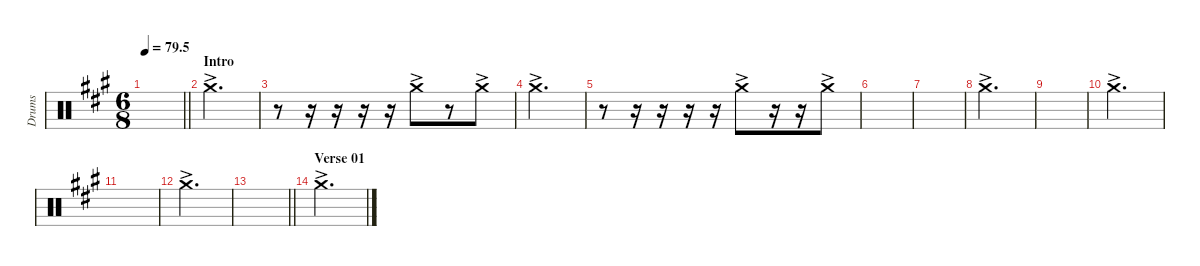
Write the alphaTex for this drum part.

\defaultSystemsLayout 4
\hideDynamics
\bracketExtendMode nobrackets
\otherSystemsTrackNameOrientation horizontal
\track ("Right crash" "Drums") {instrument percussion}
\staff {score}
\articulation defaults
\ts (6 8)
\tempo
79.5
\accidentals auto
\clef neutral
\ottava regular
\simile none
\scale
0.474178
\barLineRight lightlight
\ks a
|
\section ("" "Intro")
\scale
0.262911 "Crash medium (hit)"{ac acc forcenatural}.2{d} |
\scale
0.262911 r.8 r.16 r.16 r.16 r.16 "Crash medium (hit)"{ac acc forcenatural}.8 r.8 "Crash medium (hit)"{ac acc forcenatural}.8 |
\scale
0.333333 "Crash medium (hit)"{ac acc forcenatural}.2{d} |
\scale
0.333333 r.8 r.16 r.16 r.16 r.16 "Crash medium (hit)"{ac acc forcenatural}.8 r.16 r.16 "Crash medium (hit)"{ac acc forcenatural}.8 |
\scale
0.333333 |
\scale
0.333333 |
\scale
0.333333 "Crash medium (hit)"{ac acc forcenatural}.2{d} |
\scale
0.333333 |
\scale
0.333333 "Crash medium (hit)"{ac acc forcenatural}.2{d} |
\scale
0.333333 |
\scale
0.333333 "Crash medium (hit)"{ac acc forcenatural}.2{d} |
\scale
0.333333
\barLineRight lightlight
|
\section ("" "Verse 01")
\scale
0.333333 "Crash medium (hit)"{ac acc forcenatural}.2{d} |
\scale
0.333333 |
\scale
0.333333
